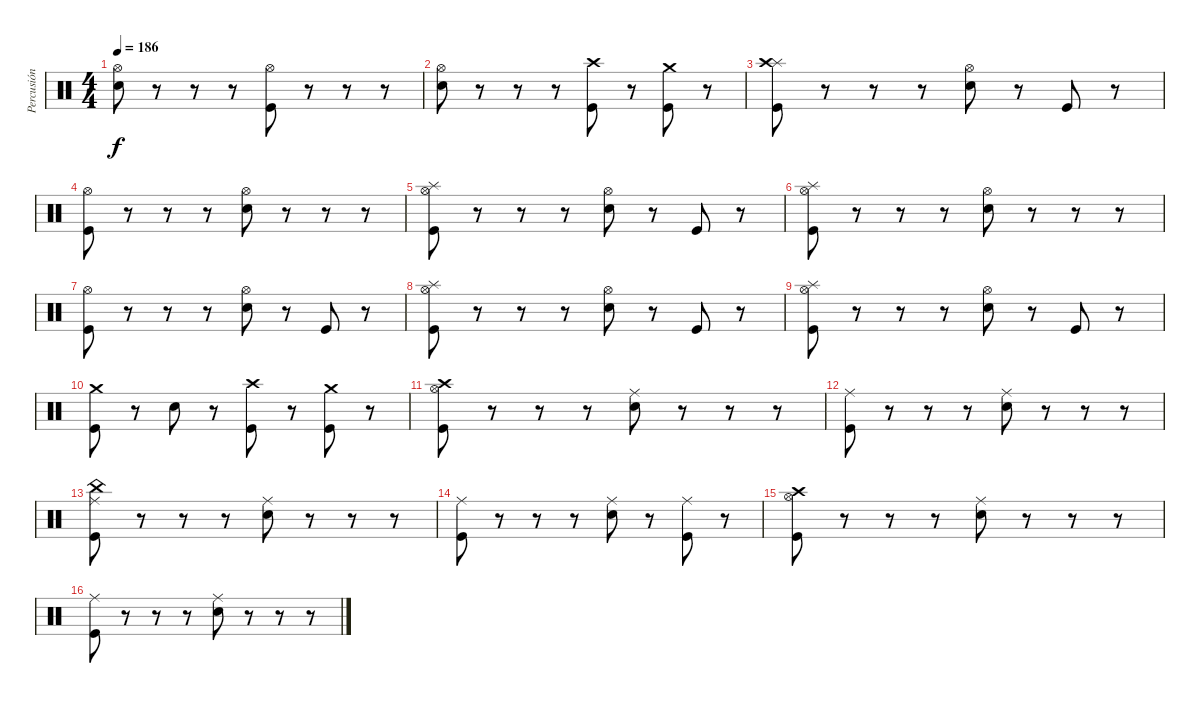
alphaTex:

\track ("Percusión" "Percusión") {instrument percussion}
\staff {score}
\articulation defaults
\ts (4 4)
\tempo 186
\clef neutral
\ks c
("Hi-Hat (open)" "Snare (hit) 2").8{dy f} r.8 r.8 r.8 ("Hi-Hat (open)" "Kick (hit)").8 r.8 r.8 r.8 |
("Hi-Hat (open)" "Snare (hit) 2").8 r.8 r.8 r.8 ("Crash high (hit)" "Kick (hit)").8 r.8 ("Crash medium (hit)" "Kick (hit)").8 r.8 |
("Splash (hit)" "Crash high (hit)" "Kick (hit)").8 r.8 r.8 r.8 ("Hi-Hat (open)" "Snare (hit) 2").8 r.8 "Kick (hit)".8 r.8 |
("Hi-Hat (open)" "Kick (hit)").8 r.8 r.8 r.8 ("Hi-Hat (open)" "Snare (hit) 2").8 r.8 r.8 r.8 |
("Hi-Hat (open)" "Splash (hit)" "Kick (hit)").8 r.8 r.8 r.8 ("Hi-Hat (open)" "Snare (hit) 2").8 r.8 "Kick (hit)".8 r.8 |
("Hi-Hat (open)" "Splash (hit)" "Kick (hit)").8 r.8 r.8 r.8 ("Hi-Hat (open)" "Snare (hit) 2").8 r.8 r.8 r.8 |
("Hi-Hat (open)" "Kick (hit)").8 r.8 r.8 r.8 ("Hi-Hat (open)" "Snare (hit) 2").8 r.8 "Kick (hit)".8 r.8 |
("Hi-Hat (open)" "Splash (hit)" "Kick (hit)").8 r.8 r.8 r.8 ("Hi-Hat (open)" "Snare (hit) 2").8 r.8 "Kick (hit)".8 r.8 |
("Hi-Hat (open)" "Splash (hit)" "Kick (hit)").8 r.8 r.8 r.8 ("Hi-Hat (open)" "Snare (hit) 2").8 r.8 "Kick (hit)".8 r.8 |
("Crash medium (hit)" "Kick (hit)").8 r.8 "Snare (hit) 2".8 r.8 ("Crash high (hit)" "Kick (hit)").8 r.8 ("Crash medium (hit)" "Kick (hit)").8 r.8 |
("Hi-Hat (open)" "Crash high (hit)" "Kick (hit)").8 r.8 r.8 r.8 ("Ride (middle)" "Snare (hit) 2").8 r.8 r.8 r.8 |
("Ride (middle)" "Kick (hit)").8 r.8 r.8 r.8 ("Ride (middle)" "Snare (hit) 2").8 r.8 r.8 r.8 |
("China (hit)" "Ride (middle)" "Kick (hit)").8 r.8 r.8 r.8 ("Ride (middle)" "Snare (hit) 2").8 r.8 r.8 r.8 |
("Ride (middle)" "Kick (hit)").8 r.8 r.8 r.8 ("Ride (middle)" "Snare (hit) 2").8 r.8 ("Ride (middle)" "Kick (hit)").8 r.8 |
("Hi-Hat (open)" "Crash high (hit)" "Kick (hit)").8 r.8 r.8 r.8 ("Ride (middle)" "Snare (hit) 2").8 r.8 r.8 r.8 |
("Ride (middle)" "Kick (hit)").8 r.8 r.8 r.8 ("Ride (middle)" "Snare (hit) 2").8 r.8 r.8 r.8
